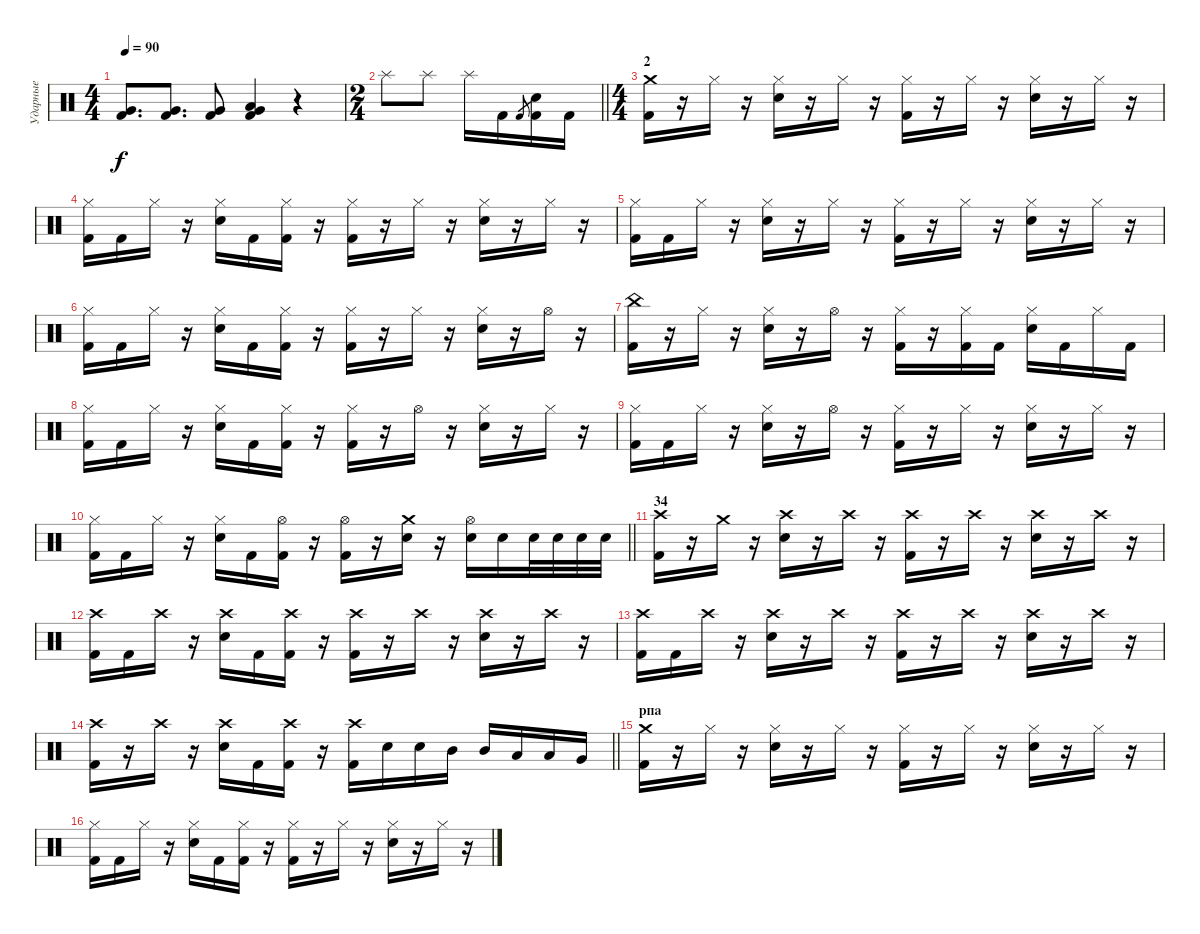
\track ("Ударные" "Ударные") {instrument percussion}
\staff {score}
\articulation defaults
\ts (4 4)
\tempo 90
\clef neutral
\ks c
("Very Low Tom (hit)" "Kick (hit) 2").8{d dy f} ("Very Low Tom (hit)" "Kick (hit) 2").8{d} ("Very Low Tom (hit)" "Kick (hit) 2").8 ("Very Low Tom (hit)" "Low Tom (hit)" "Kick (hit) 2").4 r.4 |
\ts (2 4)
\barLineRight lightlight "Splash (hit)".8 "Splash (hit)".8 "Splash (hit)".16 "Kick (hit) 2".16 "Kick (hit) 2".8{gr}
("Snare (hit) 2" "Kick (hit) 2").16 "Kick (hit) 2".16 |
\ts (4 4)
\section ("" "2")
("Crash medium (hit)" "Kick (hit) 2").16 r.16 "Hi-Hat (closed)".16 r.16 ("Hi-Hat (closed)" "Snare (hit) 2").16 r.16 "Hi-Hat (closed)".16 r.16 ("Hi-Hat (closed)" "Kick (hit) 2").16 r.16 "Hi-Hat (closed)".16 r.16 ("Hi-Hat (closed)" "Snare (hit) 2").16 r.16 "Hi-Hat (closed)".16 r.16 |
("Hi-Hat (closed)" "Kick (hit) 2").16 "Kick (hit) 2".16 "Hi-Hat (closed)".16 r.16 ("Hi-Hat (closed)" "Snare (hit) 2").16 "Kick (hit) 2".16 ("Hi-Hat (closed)" "Kick (hit) 2").16 r.16 ("Hi-Hat (closed)" "Kick (hit) 2").16 r.16 "Hi-Hat (closed)".16 r.16 ("Hi-Hat (closed)" "Snare (hit) 2").16 r.16 "Hi-Hat (closed)".16 r.16 |
("Hi-Hat (closed)" "Kick (hit) 2").16 "Kick (hit) 2".16 "Hi-Hat (closed)".16 r.16 ("Hi-Hat (closed)" "Snare (hit) 2").16 r.16 "Hi-Hat (closed)".16 r.16 ("Hi-Hat (closed)" "Kick (hit) 2").16 r.16 "Hi-Hat (closed)".16 r.16 ("Hi-Hat (closed)" "Snare (hit) 2").16 r.16 "Hi-Hat (closed)".16 r.16 |
("Hi-Hat (closed)" "Kick (hit) 2").16 "Kick (hit) 2".16 "Hi-Hat (closed)".16 r.16 ("Hi-Hat (closed)" "Snare (hit) 2").16 "Kick (hit) 2".16 ("Hi-Hat (closed)" "Kick (hit) 2").16 r.16 ("Hi-Hat (closed)" "Kick (hit) 2").16 r.16 "Hi-Hat (closed)".16 r.16 ("Hi-Hat (closed)" "Snare (hit) 2").16 r.16 "Hi-Hat (open)".16 r.16 |
("China (hit)" "Kick (hit) 2").16 r.16 "Hi-Hat (closed)".16 r.16 ("Hi-Hat (closed)" "Snare (hit) 2").16 r.16 "Hi-Hat (open)".16 r.16 ("Hi-Hat (closed)" "Kick (hit) 2").16 r.16 ("Hi-Hat (closed)" "Kick (hit) 2").16 "Kick (hit) 2".16 ("Hi-Hat (closed)" "Snare (hit) 2").16 "Kick (hit) 2".16 "Hi-Hat (closed)".16 "Kick (hit) 2".16 |
("Hi-Hat (closed)" "Kick (hit) 2").16 "Kick (hit) 2".16 "Hi-Hat (closed)".16 r.16 ("Hi-Hat (closed)" "Snare (hit) 2").16 "Kick (hit) 2".16 ("Hi-Hat (closed)" "Kick (hit) 2").16 r.16 ("Hi-Hat (closed)" "Kick (hit) 2").16 r.16 "Hi-Hat (open)".16 r.16 ("Hi-Hat (closed)" "Snare (hit) 2").16 r.16 "Hi-Hat (closed)".16 r.16 |
("Hi-Hat (closed)" "Kick (hit) 2").16 "Kick (hit) 2".16 "Hi-Hat (closed)".16 r.16 ("Hi-Hat (closed)" "Snare (hit) 2").16 r.16 "Hi-Hat (open)".16 r.16 ("Hi-Hat (closed)" "Kick (hit) 2").16 r.16 "Hi-Hat (closed)".16 r.16 ("Hi-Hat (closed)" "Snare (hit) 2").16 r.16 "Hi-Hat (closed)".16 r.16 |
\barLineRight lightlight
("Hi-Hat (closed)" "Kick (hit) 2").16 "Kick (hit) 2".16 "Hi-Hat (closed)".16 r.16 ("Hi-Hat (closed)" "Snare (hit) 2").16 "Kick (hit) 2".16 ("Hi-Hat (open)" "Kick (hit) 2").16 r.16 ("Hi-Hat (open)" "Kick (hit) 2").16 r.16 ("Crash medium (hit)" "Snare (hit) 2").16 r.16 ("Hi-Hat (open)" "Snare (hit) 2").16 "Snare (hit) 2".16 "Snare (hit) 2".32 "Snare (hit) 2".32 "Snare (hit) 2".32 "Snare (hit) 2".32 |
\section ("" "34")
("Crash high (hit)" "Kick (hit) 2").16 r.16 "Crash medium (hit)".16 r.16 ("Crash high (hit)" "Snare (hit) 2").16 r.16 "Crash high (hit)".16 r.16 ("Crash high (hit)" "Kick (hit) 2").16 r.16 "Crash high (hit)".16 r.16 ("Crash high (hit)" "Snare (hit) 2").16 r.16 "Crash high (hit)".16 r.16 |
("Crash high (hit)" "Kick (hit) 2").16 "Kick (hit) 2".16 "Crash high (hit)".16 r.16 ("Crash high (hit)" "Snare (hit) 2").16 "Kick (hit) 2".16 ("Crash high (hit)" "Kick (hit) 2").16 r.16 ("Crash high (hit)" "Kick (hit) 2").16 r.16 "Crash high (hit)".16 r.16 ("Crash high (hit)" "Snare (hit) 2").16 r.16 "Crash high (hit)".16 r.16 |
("Crash high (hit)" "Kick (hit) 2").16 "Kick (hit) 2".16 "Crash high (hit)".16 r.16 ("Crash high (hit)" "Snare (hit) 2").16 r.16 "Crash high (hit)".16 r.16 ("Crash high (hit)" "Kick (hit) 2").16 r.16 "Crash high (hit)".16 r.16 ("Crash high (hit)" "Snare (hit) 2").16 r.16 "Crash high (hit)".16 r.16 |
\barLineRight lightlight
("Crash high (hit)" "Kick (hit) 2").16 r.16 "Crash high (hit)".16 r.16 ("Crash high (hit)" "Snare (hit) 2").16 "Kick (hit) 2".16 ("Crash high (hit)" "Kick (hit) 2").16 r.16 ("Crash high (hit)" "Kick (hit) 2").16 "Snare (hit) 2".16 "Snare (hit) 2".16 "Mid Tom (hit)".16 "Mid Tom (hit)".16 "Low Tom (hit)".16 "Low Tom (hit)".16 "Very Low Tom (hit)".16 |
\section ("" "рпа")
("Crash medium (hit)" "Kick (hit) 2").16 r.16 "Hi-Hat (closed)".16 r.16 ("Hi-Hat (closed)" "Snare (hit) 2").16 r.16 "Hi-Hat (closed)".16 r.16 ("Hi-Hat (closed)" "Kick (hit) 2").16 r.16 "Hi-Hat (closed)".16 r.16 ("Hi-Hat (closed)" "Snare (hit) 2").16 r.16 "Hi-Hat (closed)".16 r.16 |
("Hi-Hat (closed)" "Kick (hit) 2").16 "Kick (hit) 2".16 "Hi-Hat (closed)".16 r.16 ("Hi-Hat (closed)" "Snare (hit) 2").16 "Kick (hit) 2".16 ("Hi-Hat (closed)" "Kick (hit) 2").16 r.16 ("Hi-Hat (closed)" "Kick (hit) 2").16 r.16 "Hi-Hat (closed)".16 r.16 ("Hi-Hat (closed)" "Snare (hit) 2").16 r.16 "Hi-Hat (closed)".16 r.16
